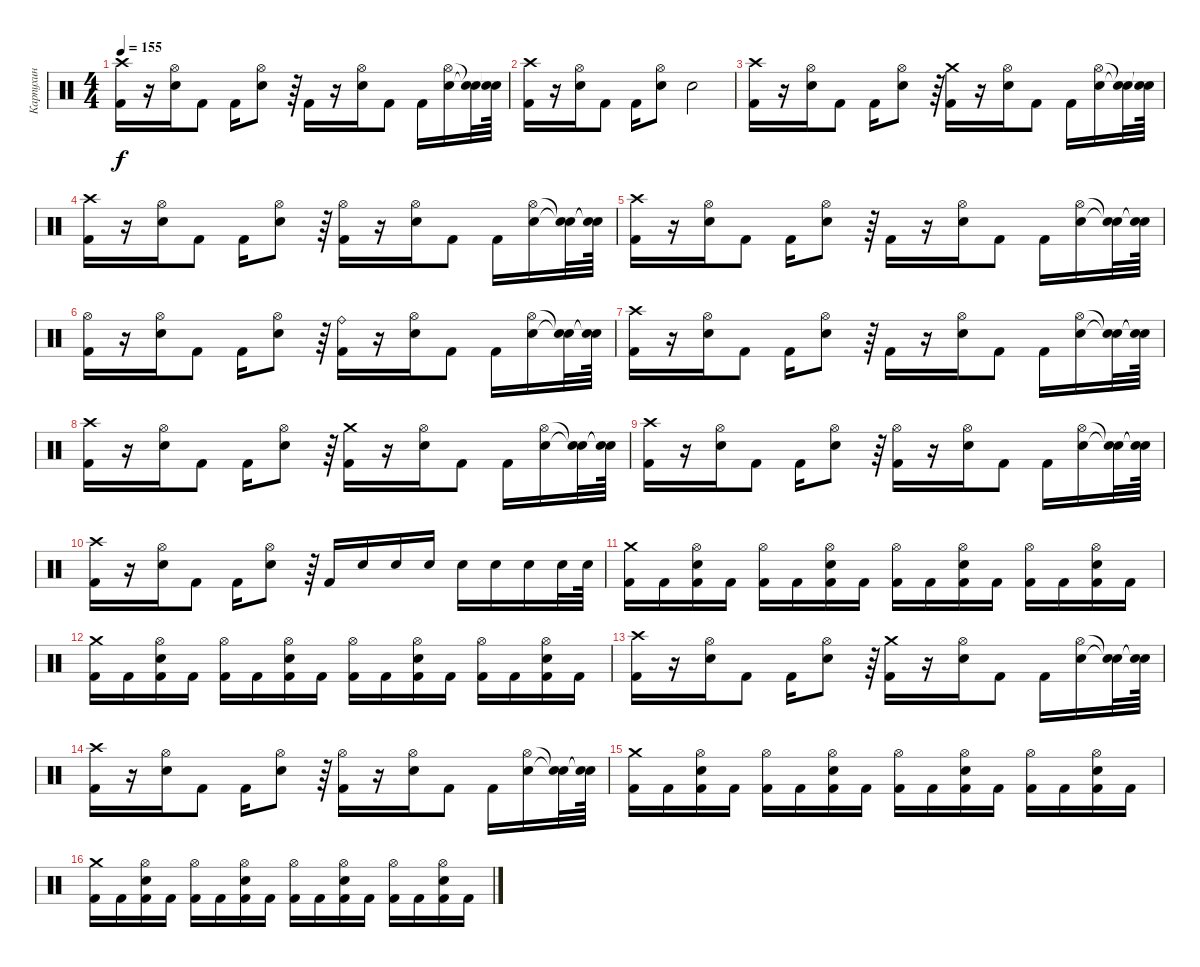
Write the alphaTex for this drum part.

\track ("Карпухин" "Карпухин") {instrument percussion}
\staff {score}
\articulation defaults
\ts (4 4)
\tempo 155
\clef neutral
\ks c
("Kick (hit) 2" "Crash high (hit)").16{dy f} r.16 ("Electric Snare (hit)" "Hi-Hat (open)").16 "Kick (hit) 2".8 "Kick (hit) 2".16 ("Electric Snare (hit)" "Hi-Hat (open)").8 r.64 "Kick (hit) 2".16 r.16 ("Electric Snare (hit)" "Hi-Hat (open)").16 "Kick (hit) 2".8 "Kick (hit) 2".16 ("Electric Snare (hit)" "Hi-Hat (open)").16 ("Snare (hit)"{t} "Snare (hit)"{t}).32 ("Snare (hit)"{t} "Snare (hit)"{t}).64 |
("Kick (hit) 2" "Crash high (hit)").16 r.16 ("Electric Snare (hit)" "Hi-Hat (open)").16 "Kick (hit) 2".8 "Kick (hit) 2".16 ("Electric Snare (hit)" "Hi-Hat (open)").8 "Electric Snare (hit)".2 |
("Kick (hit) 2" "Crash high (hit)").16 r.16 ("Electric Snare (hit)" "Hi-Hat (open)").16 "Kick (hit) 2".8 "Kick (hit) 2".16 ("Electric Snare (hit)" "Hi-Hat (open)").8 r.64 ("Crash medium (hit)" "Kick (hit) 2").16 r.16 ("Electric Snare (hit)" "Hi-Hat (open)").16 "Kick (hit) 2".8 "Kick (hit) 2".16 ("Electric Snare (hit)" "Hi-Hat (open)").16 ("Snare (hit)"{t} "Snare (hit)"{t}).32 ("Snare (hit)"{t} "Snare (hit)"{t}).64 |
("Kick (hit) 2" "Crash high (hit)").16 r.16 ("Electric Snare (hit)" "Hi-Hat (open)").16 "Kick (hit) 2".8 "Kick (hit) 2".16 ("Electric Snare (hit)" "Hi-Hat (open)").8 r.64 ("Hi-Hat (open)" "Kick (hit) 2").16 r.16 ("Electric Snare (hit)" "Hi-Hat (open)").16 "Kick (hit) 2".8 "Kick (hit) 2".16 ("Electric Snare (hit)" "Hi-Hat (open)").16 ("Snare (hit)"{t} "Snare (hit)"{t}).32 ("Snare (hit)"{t} "Snare (hit)"{t}).64 |
("Kick (hit) 2" "Crash high (hit)").16 r.16 ("Electric Snare (hit)" "Hi-Hat (open)").16 "Kick (hit) 2".8 "Kick (hit) 2".16 ("Electric Snare (hit)" "Hi-Hat (open)").8 r.64 "Kick (hit) 2".16 r.16 ("Electric Snare (hit)" "Hi-Hat (open)").16 "Kick (hit) 2".8 "Kick (hit) 2".16 ("Electric Snare (hit)" "Hi-Hat (open)").16 ("Snare (hit)"{t} "Snare (hit)"{t}).32 ("Snare (hit)"{t} "Snare (hit)"{t}).64 |
("Kick (hit) 2" "Hi-Hat (open)").16 r.16 ("Electric Snare (hit)" "Hi-Hat (open)").16 "Kick (hit) 2".8 "Kick (hit) 2".16 ("Electric Snare (hit)" "Hi-Hat (open)").8 r.64 ("Ride (bell)" "Kick (hit) 2").16 r.16 ("Electric Snare (hit)" "Hi-Hat (open)").16 "Kick (hit) 2".8 "Kick (hit) 2".16 ("Electric Snare (hit)" "Hi-Hat (open)").16 ("Snare (hit)"{t} "Snare (hit)"{t}).32 ("Snare (hit)"{t} "Snare (hit)"{t}).64 |
("Kick (hit) 2" "Crash high (hit)").16 r.16 ("Electric Snare (hit)" "Hi-Hat (open)").16 "Kick (hit) 2".8 "Kick (hit) 2".16 ("Electric Snare (hit)" "Hi-Hat (open)").8 r.64 "Kick (hit) 2".16 r.16 ("Electric Snare (hit)" "Hi-Hat (open)").16 "Kick (hit) 2".8 "Kick (hit) 2".16 ("Electric Snare (hit)" "Hi-Hat (open)").16 ("Snare (hit)"{t} "Snare (hit)"{t}).32 ("Snare (hit)"{t} "Snare (hit)"{t}).64 |
("Kick (hit) 2" "Crash high (hit)").16 r.16 ("Electric Snare (hit)" "Hi-Hat (open)").16 "Kick (hit) 2".8 "Kick (hit) 2".16 ("Electric Snare (hit)" "Hi-Hat (open)").8 r.64 ("Crash medium (hit)" "Kick (hit) 2").16 r.16 ("Electric Snare (hit)" "Hi-Hat (open)").16 "Kick (hit) 2".8 "Kick (hit) 2".16 ("Electric Snare (hit)" "Hi-Hat (open)").16 ("Snare (hit)"{t} "Snare (hit)"{t}).32 ("Snare (hit)"{t} "Snare (hit)"{t}).64 |
("Kick (hit) 2" "Crash high (hit)").16 r.16 ("Electric Snare (hit)" "Hi-Hat (open)").16 "Kick (hit) 2".8 "Kick (hit) 2".16 ("Electric Snare (hit)" "Hi-Hat (open)").8 r.64 ("Hi-Hat (open)" "Kick (hit) 2").16 r.16 ("Electric Snare (hit)" "Hi-Hat (open)").16 "Kick (hit) 2".8 "Kick (hit) 2".16 ("Electric Snare (hit)" "Hi-Hat (open)").16 ("Snare (hit)"{t} "Snare (hit)"{t}).32 ("Snare (hit)"{t} "Snare (hit)"{t}).64 |
("Kick (hit) 2" "Crash high (hit)").16 r.16 ("Electric Snare (hit)" "Hi-Hat (open)").16 "Kick (hit) 2".8 "Kick (hit) 2".16 ("Electric Snare (hit)" "Hi-Hat (open)").8 r.64 "Kick (hit) 2".16 "Electric Snare (hit)".16 "Electric Snare (hit)".16 "Electric Snare (hit)".16 "Electric Snare (hit)".16 "Electric Snare (hit)".16 "Electric Snare (hit)".16 "Electric Snare (hit)".32 "Electric Snare (hit)".64 |
("Kick (hit) 2" "Crash medium (hit)").16 "Kick (hit) 2".16 ("Kick (hit) 2" "Hi-Hat (open)" "Electric Snare (hit)").16 "Kick (hit) 2".16 ("Kick (hit) 2" "Hi-Hat (open)").16 "Kick (hit) 2".16 ("Kick (hit) 2" "Hi-Hat (open)" "Electric Snare (hit)").16 "Kick (hit) 2".16 ("Kick (hit) 2" "Hi-Hat (open)").16 "Kick (hit) 2".16 ("Kick (hit) 2" "Hi-Hat (open)" "Electric Snare (hit)").16 "Kick (hit) 2".16 ("Kick (hit) 2" "Hi-Hat (open)").16 "Kick (hit) 2".16 ("Kick (hit) 2" "Hi-Hat (open)" "Electric Snare (hit)").16 "Kick (hit) 2".16 |
("Kick (hit) 2" "Crash medium (hit)").16 "Kick (hit) 2".16 ("Kick (hit) 2" "Hi-Hat (open)" "Electric Snare (hit)").16 "Kick (hit) 2".16 ("Kick (hit) 2" "Hi-Hat (open)").16 "Kick (hit) 2".16 ("Kick (hit) 2" "Hi-Hat (open)" "Electric Snare (hit)").16 "Kick (hit) 2".16 ("Kick (hit) 2" "Hi-Hat (open)").16 "Kick (hit) 2".16 ("Kick (hit) 2" "Hi-Hat (open)" "Electric Snare (hit)").16 "Kick (hit) 2".16 ("Kick (hit) 2" "Hi-Hat (open)").16 "Kick (hit) 2".16 ("Kick (hit) 2" "Hi-Hat (open)" "Electric Snare (hit)").16 "Kick (hit) 2".16 |
("Kick (hit) 2" "Crash high (hit)").16 r.16 ("Electric Snare (hit)" "Hi-Hat (open)").16 "Kick (hit) 2".8 "Kick (hit) 2".16 ("Electric Snare (hit)" "Hi-Hat (open)").8 r.64 ("Crash medium (hit)" "Kick (hit) 2").16 r.16 ("Electric Snare (hit)" "Hi-Hat (open)").16 "Kick (hit) 2".8 "Kick (hit) 2".16 ("Electric Snare (hit)" "Hi-Hat (open)").16 ("Snare (hit)"{t} "Snare (hit)"{t}).32 ("Snare (hit)"{t} "Snare (hit)"{t}).64 |
("Kick (hit) 2" "Crash high (hit)").16 r.16 ("Electric Snare (hit)" "Hi-Hat (open)").16 "Kick (hit) 2".8 "Kick (hit) 2".16 ("Electric Snare (hit)" "Hi-Hat (open)").8 r.64 ("Hi-Hat (open)" "Kick (hit) 2").16 r.16 ("Electric Snare (hit)" "Hi-Hat (open)").16 "Kick (hit) 2".8 "Kick (hit) 2".16 ("Electric Snare (hit)" "Hi-Hat (open)").16 ("Snare (hit)"{t} "Snare (hit)"{t}).32 ("Snare (hit)"{t} "Snare (hit)"{t}).64 |
("Kick (hit) 2" "Crash medium (hit)").16 "Kick (hit) 2".16 ("Kick (hit) 2" "Hi-Hat (open)" "Electric Snare (hit)").16 "Kick (hit) 2".16 ("Kick (hit) 2" "Hi-Hat (open)").16 "Kick (hit) 2".16 ("Kick (hit) 2" "Hi-Hat (open)" "Electric Snare (hit)").16 "Kick (hit) 2".16 ("Kick (hit) 2" "Hi-Hat (open)").16 "Kick (hit) 2".16 ("Kick (hit) 2" "Hi-Hat (open)" "Electric Snare (hit)").16 "Kick (hit) 2".16 ("Kick (hit) 2" "Hi-Hat (open)").16 "Kick (hit) 2".16 ("Kick (hit) 2" "Hi-Hat (open)" "Electric Snare (hit)").16 "Kick (hit) 2".16 |
("Kick (hit) 2" "Crash medium (hit)").16 "Kick (hit) 2".16 ("Kick (hit) 2" "Hi-Hat (open)" "Electric Snare (hit)").16 "Kick (hit) 2".16 ("Kick (hit) 2" "Hi-Hat (open)").16 "Kick (hit) 2".16 ("Kick (hit) 2" "Hi-Hat (open)" "Electric Snare (hit)").16 "Kick (hit) 2".16 ("Kick (hit) 2" "Hi-Hat (open)").16 "Kick (hit) 2".16 ("Kick (hit) 2" "Hi-Hat (open)" "Electric Snare (hit)").16 "Kick (hit) 2".16 ("Kick (hit) 2" "Hi-Hat (open)").16 "Kick (hit) 2".16 ("Kick (hit) 2" "Hi-Hat (open)" "Electric Snare (hit)").16 "Kick (hit) 2".16
